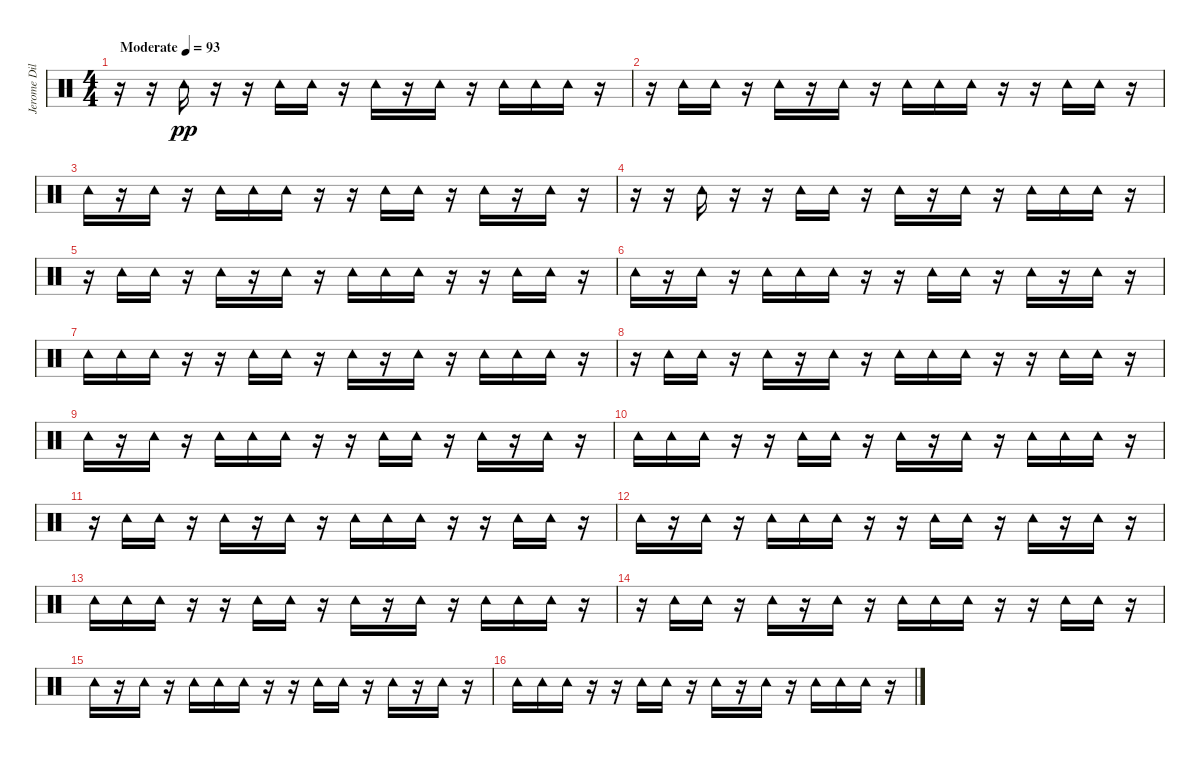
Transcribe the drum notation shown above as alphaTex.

\track ("Jerome Dillon" "Jerome Dil") {instrument percussion}
\staff {score}
\articulation defaults
\ts (4 4)
\tempo (93 "Moderate")
\clef neutral
\ks c
r.16{dy pp} r.16 "Tambourine (hit)".16 r.16 r.16 "Tambourine (hit)".16 "Tambourine (hit)".16 r.16 "Tambourine (hit)".16 r.16 "Tambourine (hit)".16 r.16 "Tambourine (hit)".16 "Tambourine (hit)".16 "Tambourine (hit)".16 r.16 |
r.16 "Tambourine (hit)".16 "Tambourine (hit)".16 r.16 "Tambourine (hit)".16 r.16 "Tambourine (hit)".16 r.16 "Tambourine (hit)".16 "Tambourine (hit)".16 "Tambourine (hit)".16 r.16 r.16 "Tambourine (hit)".16 "Tambourine (hit)".16 r.16 |
"Tambourine (hit)".16 r.16 "Tambourine (hit)".16 r.16 "Tambourine (hit)".16 "Tambourine (hit)".16 "Tambourine (hit)".16 r.16 r.16 "Tambourine (hit)".16 "Tambourine (hit)".16 r.16 "Tambourine (hit)".16 r.16 "Tambourine (hit)".16 r.16 |
r.16 r.16 "Tambourine (hit)".16 r.16 r.16 "Tambourine (hit)".16 "Tambourine (hit)".16 r.16 "Tambourine (hit)".16 r.16 "Tambourine (hit)".16 r.16 "Tambourine (hit)".16 "Tambourine (hit)".16 "Tambourine (hit)".16 r.16 |
r.16 "Tambourine (hit)".16 "Tambourine (hit)".16 r.16 "Tambourine (hit)".16 r.16 "Tambourine (hit)".16 r.16 "Tambourine (hit)".16 "Tambourine (hit)".16 "Tambourine (hit)".16 r.16 r.16 "Tambourine (hit)".16 "Tambourine (hit)".16 r.16 |
"Tambourine (hit)".16 r.16 "Tambourine (hit)".16 r.16 "Tambourine (hit)".16 "Tambourine (hit)".16 "Tambourine (hit)".16 r.16 r.16 "Tambourine (hit)".16 "Tambourine (hit)".16 r.16 "Tambourine (hit)".16 r.16 "Tambourine (hit)".16 r.16 |
"Tambourine (hit)".16 "Tambourine (hit)".16 "Tambourine (hit)".16 r.16 r.16 "Tambourine (hit)".16 "Tambourine (hit)".16 r.16 "Tambourine (hit)".16 r.16 "Tambourine (hit)".16 r.16 "Tambourine (hit)".16 "Tambourine (hit)".16 "Tambourine (hit)".16 r.16 |
r.16 "Tambourine (hit)".16 "Tambourine (hit)".16 r.16 "Tambourine (hit)".16 r.16 "Tambourine (hit)".16 r.16 "Tambourine (hit)".16 "Tambourine (hit)".16 "Tambourine (hit)".16 r.16 r.16 "Tambourine (hit)".16 "Tambourine (hit)".16 r.16 |
"Tambourine (hit)".16 r.16 "Tambourine (hit)".16 r.16 "Tambourine (hit)".16 "Tambourine (hit)".16 "Tambourine (hit)".16 r.16 r.16 "Tambourine (hit)".16 "Tambourine (hit)".16 r.16 "Tambourine (hit)".16 r.16 "Tambourine (hit)".16 r.16 |
"Tambourine (hit)".16 "Tambourine (hit)".16 "Tambourine (hit)".16 r.16 r.16 "Tambourine (hit)".16 "Tambourine (hit)".16 r.16 "Tambourine (hit)".16 r.16 "Tambourine (hit)".16 r.16 "Tambourine (hit)".16 "Tambourine (hit)".16 "Tambourine (hit)".16 r.16 |
r.16 "Tambourine (hit)".16 "Tambourine (hit)".16 r.16 "Tambourine (hit)".16 r.16 "Tambourine (hit)".16 r.16 "Tambourine (hit)".16 "Tambourine (hit)".16 "Tambourine (hit)".16 r.16 r.16 "Tambourine (hit)".16 "Tambourine (hit)".16 r.16 |
"Tambourine (hit)".16 r.16 "Tambourine (hit)".16 r.16 "Tambourine (hit)".16 "Tambourine (hit)".16 "Tambourine (hit)".16 r.16 r.16 "Tambourine (hit)".16 "Tambourine (hit)".16 r.16 "Tambourine (hit)".16 r.16 "Tambourine (hit)".16 r.16 |
"Tambourine (hit)".16 "Tambourine (hit)".16 "Tambourine (hit)".16 r.16 r.16 "Tambourine (hit)".16 "Tambourine (hit)".16 r.16 "Tambourine (hit)".16 r.16 "Tambourine (hit)".16 r.16 "Tambourine (hit)".16 "Tambourine (hit)".16 "Tambourine (hit)".16 r.16 |
r.16 "Tambourine (hit)".16 "Tambourine (hit)".16 r.16 "Tambourine (hit)".16 r.16 "Tambourine (hit)".16 r.16 "Tambourine (hit)".16 "Tambourine (hit)".16 "Tambourine (hit)".16 r.16 r.16 "Tambourine (hit)".16 "Tambourine (hit)".16 r.16 |
"Tambourine (hit)".16 r.16 "Tambourine (hit)".16 r.16 "Tambourine (hit)".16 "Tambourine (hit)".16 "Tambourine (hit)".16 r.16 r.16 "Tambourine (hit)".16 "Tambourine (hit)".16 r.16 "Tambourine (hit)".16 r.16 "Tambourine (hit)".16 r.16 |
"Tambourine (hit)".16 "Tambourine (hit)".16 "Tambourine (hit)".16 r.16 r.16 "Tambourine (hit)".16 "Tambourine (hit)".16 r.16 "Tambourine (hit)".16 r.16 "Tambourine (hit)".16 r.16 "Tambourine (hit)".16 "Tambourine (hit)".16 "Tambourine (hit)".16 r.16
